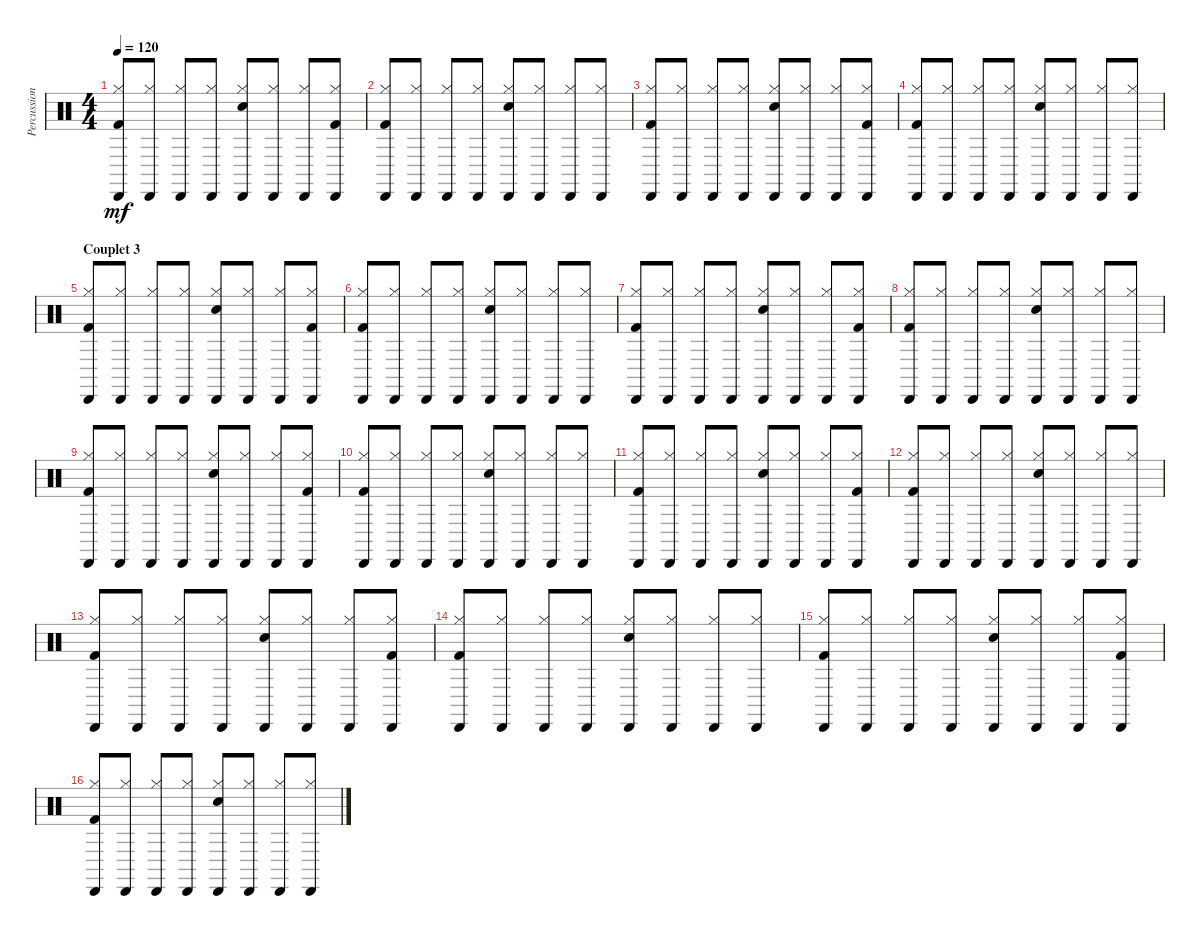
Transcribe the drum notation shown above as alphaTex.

\track ("Percussions" "Percussion") {instrument percussion}
\staff {score}
\articulation defaults
\ts (4 4)
\tempo 120
\clef neutral
\ks c
("Kick (hit) 2" "Cabasa (hit)" "Hi-Hat (closed)").8{dy mf} ("Cabasa (hit)" "Hi-Hat (closed)").8 ("Cabasa (hit)" "Hi-Hat (closed)").8 ("Cabasa (hit)" "Hi-Hat (closed)").8 ("Electric Snare (hit)" "Cabasa (hit)" "Hi-Hat (closed)").8 ("Cabasa (hit)" "Hi-Hat (closed)").8 ("Cabasa (hit)" "Hi-Hat (closed)").8 ("Kick (hit) 2" "Cabasa (hit)" "Hi-Hat (closed)").8 |
("Kick (hit) 2" "Cabasa (hit)" "Hi-Hat (closed)").8 ("Cabasa (hit)" "Hi-Hat (closed)").8 ("Cabasa (hit)" "Hi-Hat (closed)").8 ("Cabasa (hit)" "Hi-Hat (closed)").8 ("Electric Snare (hit)" "Cabasa (hit)" "Hi-Hat (closed)").8 ("Cabasa (hit)" "Hi-Hat (closed)").8 ("Cabasa (hit)" "Hi-Hat (closed)").8 ("Cabasa (hit)" "Hi-Hat (closed)").8 |
("Kick (hit) 2" "Cabasa (hit)" "Hi-Hat (closed)").8 ("Cabasa (hit)" "Hi-Hat (closed)").8 ("Cabasa (hit)" "Hi-Hat (closed)").8 ("Cabasa (hit)" "Hi-Hat (closed)").8 ("Electric Snare (hit)" "Cabasa (hit)" "Hi-Hat (closed)").8 ("Cabasa (hit)" "Hi-Hat (closed)").8 ("Cabasa (hit)" "Hi-Hat (closed)").8 ("Kick (hit) 2" "Cabasa (hit)" "Hi-Hat (closed)").8 |
("Kick (hit) 2" "Cabasa (hit)" "Hi-Hat (closed)").8 ("Cabasa (hit)" "Hi-Hat (closed)").8 ("Cabasa (hit)" "Hi-Hat (closed)").8 ("Cabasa (hit)" "Hi-Hat (closed)").8 ("Electric Snare (hit)" "Cabasa (hit)" "Hi-Hat (closed)").8 ("Cabasa (hit)" "Hi-Hat (closed)").8 ("Cabasa (hit)" "Hi-Hat (closed)").8 ("Cabasa (hit)" "Hi-Hat (closed)").8 |
\section ("" "Couplet 3")
("Kick (hit) 2" "Cabasa (hit)" "Hi-Hat (closed)").8 ("Cabasa (hit)" "Hi-Hat (closed)").8 ("Cabasa (hit)" "Hi-Hat (closed)").8 ("Cabasa (hit)" "Hi-Hat (closed)").8 ("Electric Snare (hit)" "Cabasa (hit)" "Hi-Hat (closed)").8 ("Cabasa (hit)" "Hi-Hat (closed)").8 ("Cabasa (hit)" "Hi-Hat (closed)").8 ("Kick (hit) 2" "Cabasa (hit)" "Hi-Hat (closed)").8 |
("Kick (hit) 2" "Cabasa (hit)" "Hi-Hat (closed)").8 ("Cabasa (hit)" "Hi-Hat (closed)").8 ("Cabasa (hit)" "Hi-Hat (closed)").8 ("Cabasa (hit)" "Hi-Hat (closed)").8 ("Electric Snare (hit)" "Cabasa (hit)" "Hi-Hat (closed)").8 ("Cabasa (hit)" "Hi-Hat (closed)").8 ("Cabasa (hit)" "Hi-Hat (closed)").8 ("Cabasa (hit)" "Hi-Hat (closed)").8 |
("Kick (hit) 2" "Cabasa (hit)" "Hi-Hat (closed)").8 ("Cabasa (hit)" "Hi-Hat (closed)").8 ("Cabasa (hit)" "Hi-Hat (closed)").8 ("Cabasa (hit)" "Hi-Hat (closed)").8 ("Electric Snare (hit)" "Cabasa (hit)" "Hi-Hat (closed)").8 ("Cabasa (hit)" "Hi-Hat (closed)").8 ("Cabasa (hit)" "Hi-Hat (closed)").8 ("Kick (hit) 2" "Cabasa (hit)" "Hi-Hat (closed)").8 |
("Kick (hit) 2" "Cabasa (hit)" "Hi-Hat (closed)").8 ("Cabasa (hit)" "Hi-Hat (closed)").8 ("Cabasa (hit)" "Hi-Hat (closed)").8 ("Cabasa (hit)" "Hi-Hat (closed)").8 ("Electric Snare (hit)" "Cabasa (hit)" "Hi-Hat (closed)").8 ("Cabasa (hit)" "Hi-Hat (closed)").8 ("Cabasa (hit)" "Hi-Hat (closed)").8 ("Cabasa (hit)" "Hi-Hat (closed)").8 |
("Kick (hit) 2" "Cabasa (hit)" "Hi-Hat (closed)").8 ("Cabasa (hit)" "Hi-Hat (closed)").8 ("Cabasa (hit)" "Hi-Hat (closed)").8 ("Cabasa (hit)" "Hi-Hat (closed)").8 ("Electric Snare (hit)" "Cabasa (hit)" "Hi-Hat (closed)").8 ("Cabasa (hit)" "Hi-Hat (closed)").8 ("Cabasa (hit)" "Hi-Hat (closed)").8 ("Kick (hit) 2" "Cabasa (hit)" "Hi-Hat (closed)").8 |
("Kick (hit) 2" "Cabasa (hit)" "Hi-Hat (closed)").8 ("Cabasa (hit)" "Hi-Hat (closed)").8 ("Cabasa (hit)" "Hi-Hat (closed)").8 ("Cabasa (hit)" "Hi-Hat (closed)").8 ("Electric Snare (hit)" "Cabasa (hit)" "Hi-Hat (closed)").8 ("Cabasa (hit)" "Hi-Hat (closed)").8 ("Cabasa (hit)" "Hi-Hat (closed)").8 ("Cabasa (hit)" "Hi-Hat (closed)").8 |
("Kick (hit) 2" "Cabasa (hit)" "Hi-Hat (closed)").8 ("Cabasa (hit)" "Hi-Hat (closed)").8 ("Cabasa (hit)" "Hi-Hat (closed)").8 ("Cabasa (hit)" "Hi-Hat (closed)").8 ("Electric Snare (hit)" "Cabasa (hit)" "Hi-Hat (closed)").8 ("Cabasa (hit)" "Hi-Hat (closed)").8 ("Cabasa (hit)" "Hi-Hat (closed)").8 ("Kick (hit) 2" "Cabasa (hit)" "Hi-Hat (closed)").8 |
("Kick (hit) 2" "Cabasa (hit)" "Hi-Hat (closed)").8 ("Cabasa (hit)" "Hi-Hat (closed)").8 ("Cabasa (hit)" "Hi-Hat (closed)").8 ("Cabasa (hit)" "Hi-Hat (closed)").8 ("Electric Snare (hit)" "Cabasa (hit)" "Hi-Hat (closed)").8 ("Cabasa (hit)" "Hi-Hat (closed)").8 ("Cabasa (hit)" "Hi-Hat (closed)").8 ("Cabasa (hit)" "Hi-Hat (closed)").8 |
("Kick (hit) 2" "Cabasa (hit)" "Hi-Hat (closed)").8 ("Cabasa (hit)" "Hi-Hat (closed)").8 ("Cabasa (hit)" "Hi-Hat (closed)").8 ("Cabasa (hit)" "Hi-Hat (closed)").8 ("Electric Snare (hit)" "Cabasa (hit)" "Hi-Hat (closed)").8 ("Cabasa (hit)" "Hi-Hat (closed)").8 ("Cabasa (hit)" "Hi-Hat (closed)").8 ("Kick (hit) 2" "Cabasa (hit)" "Hi-Hat (closed)").8 |
("Kick (hit) 2" "Cabasa (hit)" "Hi-Hat (closed)").8 ("Cabasa (hit)" "Hi-Hat (closed)").8 ("Cabasa (hit)" "Hi-Hat (closed)").8 ("Cabasa (hit)" "Hi-Hat (closed)").8 ("Electric Snare (hit)" "Cabasa (hit)" "Hi-Hat (closed)").8 ("Cabasa (hit)" "Hi-Hat (closed)").8 ("Cabasa (hit)" "Hi-Hat (closed)").8 ("Cabasa (hit)" "Hi-Hat (closed)").8 |
("Kick (hit) 2" "Cabasa (hit)" "Hi-Hat (closed)").8 ("Cabasa (hit)" "Hi-Hat (closed)").8 ("Cabasa (hit)" "Hi-Hat (closed)").8 ("Cabasa (hit)" "Hi-Hat (closed)").8 ("Electric Snare (hit)" "Cabasa (hit)" "Hi-Hat (closed)").8 ("Cabasa (hit)" "Hi-Hat (closed)").8 ("Cabasa (hit)" "Hi-Hat (closed)").8 ("Kick (hit) 2" "Cabasa (hit)" "Hi-Hat (closed)").8 |
("Kick (hit) 2" "Cabasa (hit)" "Hi-Hat (closed)").8 ("Cabasa (hit)" "Hi-Hat (closed)").8 ("Cabasa (hit)" "Hi-Hat (closed)").8 ("Cabasa (hit)" "Hi-Hat (closed)").8 ("Electric Snare (hit)" "Cabasa (hit)" "Hi-Hat (closed)").8 ("Cabasa (hit)" "Hi-Hat (closed)").8 ("Cabasa (hit)" "Hi-Hat (closed)").8 ("Cabasa (hit)" "Hi-Hat (closed)").8
